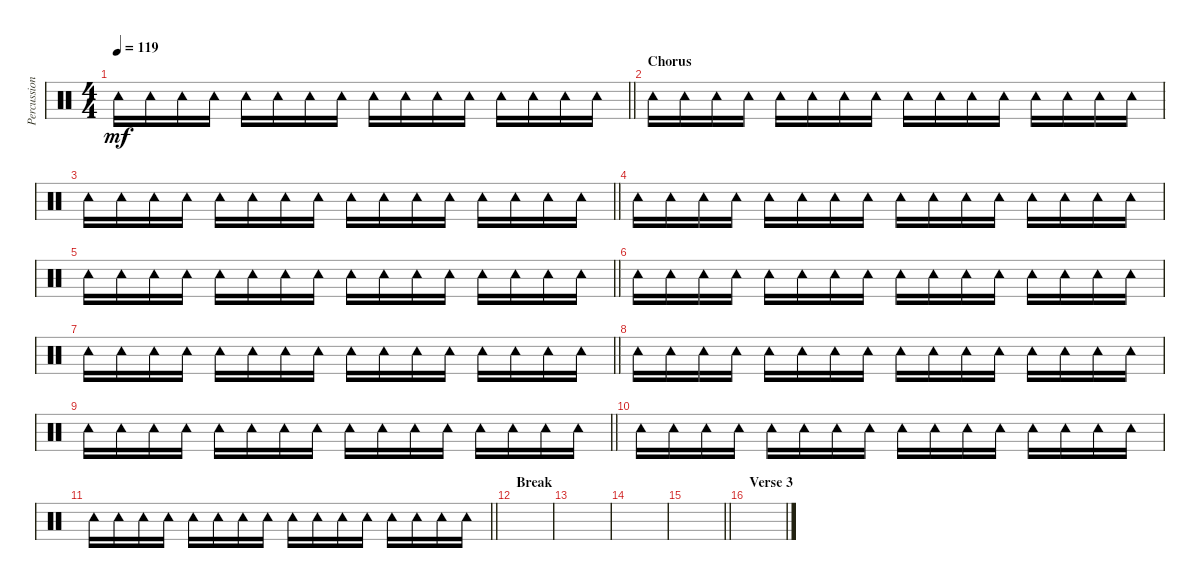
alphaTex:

\track ("Percussions" "Percussion") {instrument percussion}
\staff {score}
\articulation defaults
\ts (4 4)
\tempo 119
\clef neutral
\barLineRight lightlight
\ks c "Tambourine (hit)".16{dy mf} "Tambourine (hit)".16 "Tambourine (hit)".16 "Tambourine (hit)".16 "Tambourine (hit)".16 "Tambourine (hit)".16 "Tambourine (hit)".16 "Tambourine (hit)".16 "Tambourine (hit)".16 "Tambourine (hit)".16 "Tambourine (hit)".16 "Tambourine (hit)".16 "Tambourine (hit)".16 "Tambourine (hit)".16 "Tambourine (hit)".16 "Tambourine (hit)".16
|
\section ("" "Chorus")
"Tambourine (hit)".16 "Tambourine (hit)".16 "Tambourine (hit)".16 "Tambourine (hit)".16 "Tambourine (hit)".16 "Tambourine (hit)".16 "Tambourine (hit)".16 "Tambourine (hit)".16 "Tambourine (hit)".16 "Tambourine (hit)".16 "Tambourine (hit)".16 "Tambourine (hit)".16 "Tambourine (hit)".16 "Tambourine (hit)".16 "Tambourine (hit)".16 "Tambourine (hit)".16 |
\barLineRight lightlight "Tambourine (hit)".16 "Tambourine (hit)".16 "Tambourine (hit)".16 "Tambourine (hit)".16 "Tambourine (hit)".16 "Tambourine (hit)".16 "Tambourine (hit)".16 "Tambourine (hit)".16 "Tambourine (hit)".16 "Tambourine (hit)".16 "Tambourine (hit)".16 "Tambourine (hit)".16 "Tambourine (hit)".16 "Tambourine (hit)".16 "Tambourine (hit)".16 "Tambourine (hit)".16
|
"Tambourine (hit)".16 "Tambourine (hit)".16 "Tambourine (hit)".16 "Tambourine (hit)".16 "Tambourine (hit)".16 "Tambourine (hit)".16 "Tambourine (hit)".16 "Tambourine (hit)".16 "Tambourine (hit)".16 "Tambourine (hit)".16 "Tambourine (hit)".16 "Tambourine (hit)".16 "Tambourine (hit)".16 "Tambourine (hit)".16 "Tambourine (hit)".16 "Tambourine (hit)".16 |
\barLineRight lightlight "Tambourine (hit)".16 "Tambourine (hit)".16 "Tambourine (hit)".16 "Tambourine (hit)".16 "Tambourine (hit)".16 "Tambourine (hit)".16 "Tambourine (hit)".16 "Tambourine (hit)".16 "Tambourine (hit)".16 "Tambourine (hit)".16 "Tambourine (hit)".16 "Tambourine (hit)".16 "Tambourine (hit)".16 "Tambourine (hit)".16 "Tambourine (hit)".16 "Tambourine (hit)".16
|
"Tambourine (hit)".16 "Tambourine (hit)".16 "Tambourine (hit)".16 "Tambourine (hit)".16 "Tambourine (hit)".16 "Tambourine (hit)".16 "Tambourine (hit)".16 "Tambourine (hit)".16 "Tambourine (hit)".16 "Tambourine (hit)".16 "Tambourine (hit)".16 "Tambourine (hit)".16 "Tambourine (hit)".16 "Tambourine (hit)".16 "Tambourine (hit)".16 "Tambourine (hit)".16 |
\barLineRight lightlight "Tambourine (hit)".16 "Tambourine (hit)".16 "Tambourine (hit)".16 "Tambourine (hit)".16 "Tambourine (hit)".16 "Tambourine (hit)".16 "Tambourine (hit)".16 "Tambourine (hit)".16 "Tambourine (hit)".16 "Tambourine (hit)".16 "Tambourine (hit)".16 "Tambourine (hit)".16 "Tambourine (hit)".16 "Tambourine (hit)".16 "Tambourine (hit)".16 "Tambourine (hit)".16
|
"Tambourine (hit)".16 "Tambourine (hit)".16 "Tambourine (hit)".16 "Tambourine (hit)".16 "Tambourine (hit)".16 "Tambourine (hit)".16 "Tambourine (hit)".16 "Tambourine (hit)".16 "Tambourine (hit)".16 "Tambourine (hit)".16 "Tambourine (hit)".16 "Tambourine (hit)".16 "Tambourine (hit)".16 "Tambourine (hit)".16 "Tambourine (hit)".16 "Tambourine (hit)".16 |
\barLineRight lightlight "Tambourine (hit)".16 "Tambourine (hit)".16 "Tambourine (hit)".16 "Tambourine (hit)".16 "Tambourine (hit)".16 "Tambourine (hit)".16 "Tambourine (hit)".16 "Tambourine (hit)".16 "Tambourine (hit)".16 "Tambourine (hit)".16 "Tambourine (hit)".16 "Tambourine (hit)".16 "Tambourine (hit)".16 "Tambourine (hit)".16 "Tambourine (hit)".16 "Tambourine (hit)".16
|
"Tambourine (hit)".16 "Tambourine (hit)".16 "Tambourine (hit)".16 "Tambourine (hit)".16 "Tambourine (hit)".16 "Tambourine (hit)".16 "Tambourine (hit)".16 "Tambourine (hit)".16 "Tambourine (hit)".16 "Tambourine (hit)".16 "Tambourine (hit)".16 "Tambourine (hit)".16 "Tambourine (hit)".16 "Tambourine (hit)".16 "Tambourine (hit)".16 "Tambourine (hit)".16 |
\barLineRight lightlight "Tambourine (hit)".16 "Tambourine (hit)".16 "Tambourine (hit)".16 "Tambourine (hit)".16 "Tambourine (hit)".16 "Tambourine (hit)".16 "Tambourine (hit)".16 "Tambourine (hit)".16 "Tambourine (hit)".16 "Tambourine (hit)".16 "Tambourine (hit)".16 "Tambourine (hit)".16 "Tambourine (hit)".16 "Tambourine (hit)".16 "Tambourine (hit)".16 "Tambourine (hit)".16
|
\section ("" "Break")
|
|
|
\barLineRight lightlight
|
\section ("" "Verse 3")
